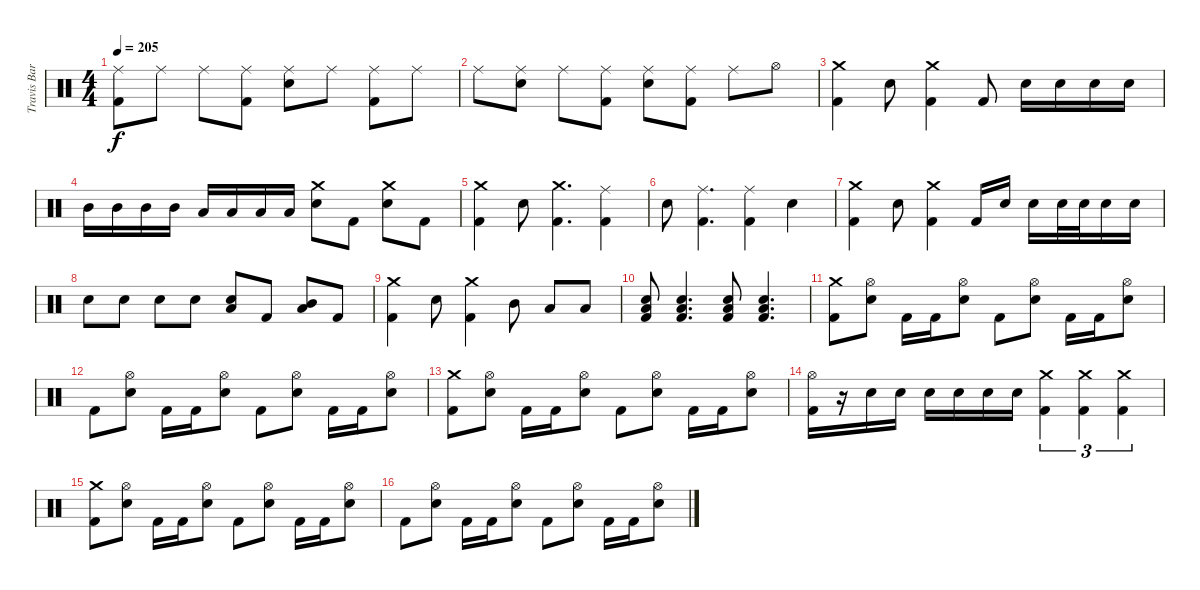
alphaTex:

\track ("Travis Barker (Drums)" "Travis Bar") {instrument percussion}
\staff {score}
\articulation defaults
\ts (4 4)
\tempo 205
\clef neutral
\ks c
("Ride (middle)" "Kick (hit) 2").8{dy f} "Ride (middle)".8 "Ride (middle)".8 ("Ride (middle)" "Kick (hit) 2").8 ("Ride (middle)" "Electric Snare (hit)").8 "Ride (middle)".8 ("Ride (middle)" "Kick (hit) 2").8 "Ride (middle)".8 |
"Ride (middle)".8 ("Ride (middle)" "Electric Snare (hit)").8 "Ride (middle)".8 ("Ride (middle)" "Kick (hit) 2").8 ("Ride (middle)" "Electric Snare (hit)").8 ("Ride (middle)" "Kick (hit) 2").8 "Ride (middle)".8 "Hi-Hat (open)".8 |
("Crash medium (hit)" "Kick (hit) 2").4 "Electric Snare (hit)".8 ("Crash medium (hit)" "Kick (hit) 2").4 "Kick (hit) 2".8 "Electric Snare (hit)".16 "Electric Snare (hit)".16 "Electric Snare (hit)".16 "Electric Snare (hit)".16 |
"Mid Tom (hit)".16 "Mid Tom (hit)".16 "Mid Tom (hit)".16 "Mid Tom (hit)".16 "Low Floor Tom (hit)".16 "Low Floor Tom (hit)".16 "Low Floor Tom (hit)".16 "Low Floor Tom (hit)".16 ("Crash medium (hit)" "Electric Snare (hit)").8 "Kick (hit) 2".8 ("Crash medium (hit)" "Electric Snare (hit)").8 "Kick (hit) 2".8 |
("Crash medium (hit)" "Kick (hit) 2").4 "Electric Snare (hit)".8 ("Crash medium (hit)" "Kick (hit) 2").4{d} ("Ride (middle)" "Kick (hit) 2").4 |
"Electric Snare (hit)".8 ("Ride (middle)" "Kick (hit) 2").4{d} ("Ride (middle)" "Kick (hit) 2").4 "Electric Snare (hit)".4 |
("Crash medium (hit)" "Kick (hit) 2").4 "Electric Snare (hit)".8 ("Crash medium (hit)" "Kick (hit) 2").4 "Kick (hit) 2".16 "Electric Snare (hit)".16 "Electric Snare (hit)".16 "Electric Snare (hit)".32 "Electric Snare (hit)".32 "Electric Snare (hit)".16 "Electric Snare (hit)".16 |
"Electric Snare (hit)".8 "Electric Snare (hit)".8 "Electric Snare (hit)".8 "Electric Snare (hit)".8 ("Electric Snare (hit)" "Low Floor Tom (hit)").8 "Kick (hit) 2".8 ("Mid Tom (hit)" "Low Floor Tom (hit)").8 "Kick (hit) 2".8 |
("Crash medium (hit)" "Kick (hit) 2").4 "Electric Snare (hit)".8 ("Crash medium (hit)" "Kick (hit) 2").4 "Mid Tom (hit)".8 "Low Tom (hit)".8 "Low Floor Tom (hit)".8 |
("Low Floor Tom (hit)" "Electric Snare (hit)" "Kick (hit) 2").8 ("Low Floor Tom (hit)" "Electric Snare (hit)" "Kick (hit) 2").4{d} ("Low Floor Tom (hit)" "Electric Snare (hit)" "Kick (hit) 2").8 ("Low Floor Tom (hit)" "Electric Snare (hit)" "Kick (hit) 2").4{d} |
("Crash medium (hit)" "Kick (hit) 2").8 ("Hi-Hat (open)" "Electric Snare (hit)").8 "Kick (hit) 2".16 "Kick (hit) 2".16 ("Hi-Hat (open)" "Electric Snare (hit)").8 "Kick (hit) 2".8 ("Hi-Hat (open)" "Electric Snare (hit)").8 "Kick (hit) 2".16 "Kick (hit) 2".16 ("Hi-Hat (open)" "Electric Snare (hit)").8 |
"Kick (hit) 2".8 ("Hi-Hat (open)" "Electric Snare (hit)").8 "Kick (hit) 2".16 "Kick (hit) 2".16 ("Hi-Hat (open)" "Electric Snare (hit)").8 "Kick (hit) 2".8 ("Hi-Hat (open)" "Electric Snare (hit)").8 "Kick (hit) 2".16 "Kick (hit) 2".16 ("Hi-Hat (open)" "Electric Snare (hit)").8 |
("Crash medium (hit)" "Kick (hit) 2").8 ("Hi-Hat (open)" "Electric Snare (hit)").8 "Kick (hit) 2".16 "Kick (hit) 2".16 ("Hi-Hat (open)" "Electric Snare (hit)").8 "Kick (hit) 2".8 ("Hi-Hat (open)" "Electric Snare (hit)").8 "Kick (hit) 2".16 "Kick (hit) 2".16 ("Hi-Hat (open)" "Electric Snare (hit)").8 |
("Hi-Hat (open)" "Kick (hit) 2").16 r.16 "Electric Snare (hit)".16 "Electric Snare (hit)".16 "Electric Snare (hit)".16 "Electric Snare (hit)".16 "Electric Snare (hit)".16 "Electric Snare (hit)".16 ("Crash medium (hit)" "Kick (hit) 2").4{tu (3 2)} ("Crash medium (hit)" "Kick (hit) 2").4{tu (3 2)} ("Crash medium (hit)" "Kick (hit) 2").4{tu (3 2)} |
("Crash medium (hit)" "Kick (hit) 2").8 ("Hi-Hat (open)" "Electric Snare (hit)").8 "Kick (hit) 2".16 "Kick (hit) 2".16 ("Hi-Hat (open)" "Electric Snare (hit)").8 "Kick (hit) 2".8 ("Hi-Hat (open)" "Electric Snare (hit)").8 "Kick (hit) 2".16 "Kick (hit) 2".16 ("Hi-Hat (open)" "Electric Snare (hit)").8 |
"Kick (hit) 2".8 ("Hi-Hat (open)" "Electric Snare (hit)").8 "Kick (hit) 2".16 "Kick (hit) 2".16 ("Hi-Hat (open)" "Electric Snare (hit)").8 "Kick (hit) 2".8 ("Hi-Hat (open)" "Electric Snare (hit)").8 "Kick (hit) 2".16 "Kick (hit) 2".16 ("Hi-Hat (open)" "Electric Snare (hit)").8
